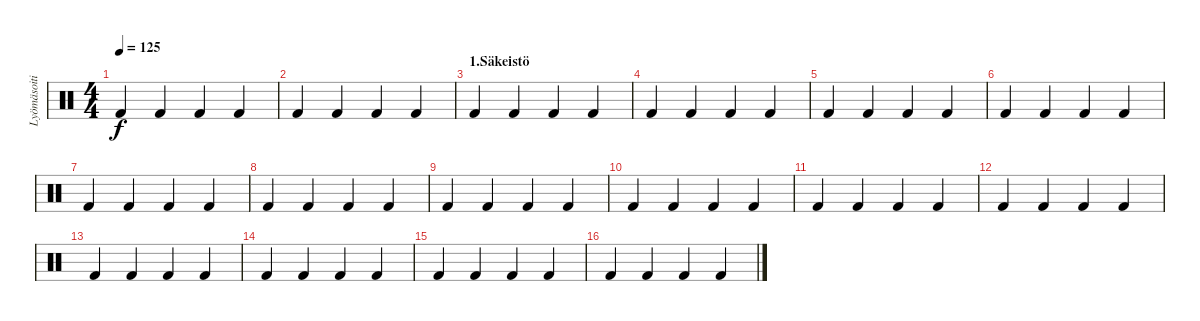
\track ("Lyömäsoitin" "Lyömäsoiti") {instrument percussion}
\staff {score}
\articulation defaults
\ts (4 4)
\tempo 125
\clef neutral
\ks c "Kick (hit) 2".4{dy f} "Kick (hit) 2".4 "Kick (hit) 2".4 "Kick (hit) 2".4
|
"Kick (hit) 2".4 "Kick (hit) 2".4 "Kick (hit) 2".4 "Kick (hit) 2".4 |
\section ("" "1.Säkeistö")
"Kick (hit) 2".4 "Kick (hit) 2".4 "Kick (hit) 2".4 "Kick (hit) 2".4 |
"Kick (hit) 2".4 "Kick (hit) 2".4 "Kick (hit) 2".4 "Kick (hit) 2".4 |
"Kick (hit) 2".4 "Kick (hit) 2".4 "Kick (hit) 2".4 "Kick (hit) 2".4 |
"Kick (hit) 2".4 "Kick (hit) 2".4 "Kick (hit) 2".4 "Kick (hit) 2".4 |
"Kick (hit) 2".4 "Kick (hit) 2".4 "Kick (hit) 2".4 "Kick (hit) 2".4 |
"Kick (hit) 2".4 "Kick (hit) 2".4 "Kick (hit) 2".4 "Kick (hit) 2".4 |
"Kick (hit) 2".4 "Kick (hit) 2".4 "Kick (hit) 2".4 "Kick (hit) 2".4 |
"Kick (hit) 2".4 "Kick (hit) 2".4 "Kick (hit) 2".4 "Kick (hit) 2".4 |
"Kick (hit) 2".4 "Kick (hit) 2".4 "Kick (hit) 2".4 "Kick (hit) 2".4 |
"Kick (hit) 2".4 "Kick (hit) 2".4 "Kick (hit) 2".4 "Kick (hit) 2".4 |
"Kick (hit) 2".4 "Kick (hit) 2".4 "Kick (hit) 2".4 "Kick (hit) 2".4 |
"Kick (hit) 2".4 "Kick (hit) 2".4 "Kick (hit) 2".4 "Kick (hit) 2".4 |
"Kick (hit) 2".4 "Kick (hit) 2".4 "Kick (hit) 2".4 "Kick (hit) 2".4 |
"Kick (hit) 2".4 "Kick (hit) 2".4 "Kick (hit) 2".4 "Kick (hit) 2".4
